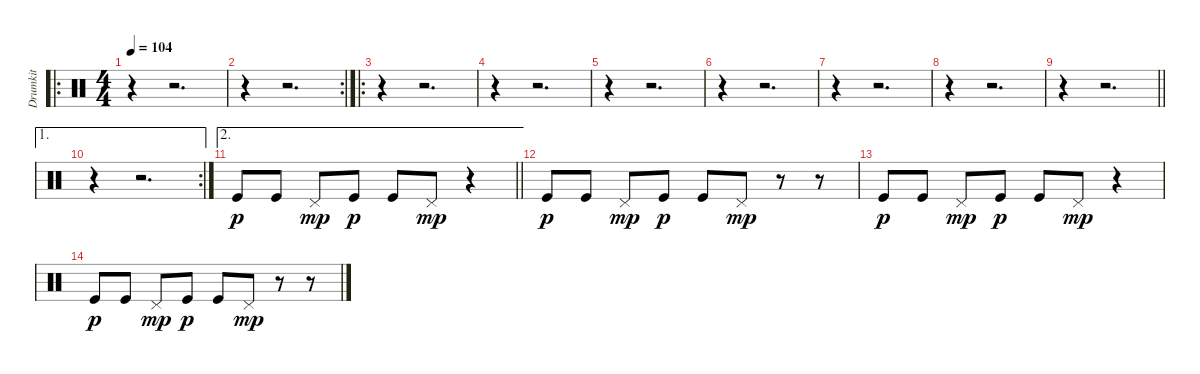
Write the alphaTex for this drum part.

\track ("Drumkit" "Drumkit") {instrument percussion}
\staff {score}
\articulation defaults
\ro
\ts (4 4)
\tempo 104
\clef neutral
\ks c
r.4{dy p} r.2{d} |
\rc 2
r.4 r.2{d} |
\ro
r.4 r.2{d} |
r.4 r.2{d} |
r.4 r.2{d} |
r.4 r.2{d} |
r.4 r.2{d} |
r.4 r.2{d} |
\barLineRight lightlight
r.4 r.2{d} |
\ae 1
\rc 2
r.4 r.2{d} |
\ae 2
\barLineRight lightlight "Kick (hit)".8 "Kick (hit)".8 "Pedal Hi-Hat (hit)".8{dy mp} "Kick (hit)".8{dy p} "Kick (hit)".8 "Pedal Hi-Hat (hit)".8{dy mp}
r.4 |
"Kick (hit)".8{dy p} "Kick (hit)".8 "Pedal Hi-Hat (hit)".8{dy mp} "Kick (hit)".8{dy p} "Kick (hit)".8 "Pedal Hi-Hat (hit)".8{dy mp} r.8 r.8 |
"Kick (hit)".8{dy p} "Kick (hit)".8 "Pedal Hi-Hat (hit)".8{dy mp} "Kick (hit)".8{dy p} "Kick (hit)".8 "Pedal Hi-Hat (hit)".8{dy mp} r.4 |
"Kick (hit)".8{dy p} "Kick (hit)".8 "Pedal Hi-Hat (hit)".8{dy mp} "Kick (hit)".8{dy p} "Kick (hit)".8 "Pedal Hi-Hat (hit)".8{dy mp} r.8 r.8
